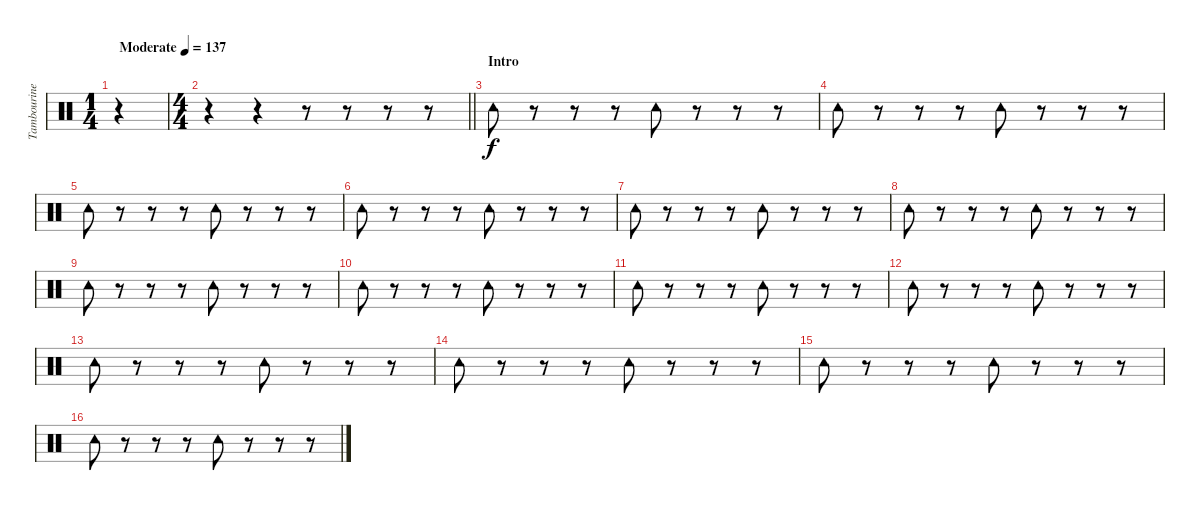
\track ("Tambourine" "Tambourine") {instrument percussion}
\staff {score}
\articulation defaults
\voice
\ts (1 4)
\tempo (137 "Moderate")
\clef neutral
\ks c
r.4{dy f} |
\ts (4 4)
\barLineRight lightlight
r.4 r.4 r.8 r.8 r.8 r.8 |
\section ("" "Intro")
"Tambourine (hit)".8 r.8 r.8 r.8 "Tambourine (hit)".8 r.8 r.8 r.8 |
"Tambourine (hit)".8 r.8 r.8 r.8 "Tambourine (hit)".8 r.8 r.8 r.8 |
"Tambourine (hit)".8 r.8 r.8 r.8 "Tambourine (hit)".8 r.8 r.8 r.8 |
"Tambourine (hit)".8 r.8 r.8 r.8 "Tambourine (hit)".8 r.8 r.8 r.8 |
"Tambourine (hit)".8 r.8 r.8 r.8 "Tambourine (hit)".8 r.8 r.8 r.8 |
"Tambourine (hit)".8 r.8 r.8 r.8 "Tambourine (hit)".8 r.8 r.8 r.8 |
"Tambourine (hit)".8 r.8 r.8 r.8 "Tambourine (hit)".8 r.8 r.8 r.8 |
"Tambourine (hit)".8 r.8 r.8 r.8 "Tambourine (hit)".8 r.8 r.8 r.8 |
"Tambourine (hit)".8 r.8 r.8 r.8 "Tambourine (hit)".8 r.8 r.8 r.8 |
"Tambourine (hit)".8 r.8 r.8 r.8 "Tambourine (hit)".8 r.8 r.8 r.8 |
"Tambourine (hit)".8 r.8 r.8 r.8 "Tambourine (hit)".8 r.8 r.8 r.8 |
"Tambourine (hit)".8 r.8 r.8 r.8 "Tambourine (hit)".8 r.8 r.8 r.8 |
"Tambourine (hit)".8 r.8 r.8 r.8 "Tambourine (hit)".8 r.8 r.8 r.8 |
"Tambourine (hit)".8 r.8 r.8 r.8 "Tambourine (hit)".8 r.8 r.8 r.8
\voice
\clef neutral
\ottava regular
\simile none
\ks c
r.4{dy f} |
\barLineRight lightlight
|
|
|
|
|
|
|
|
|
|
|
|
|
|
